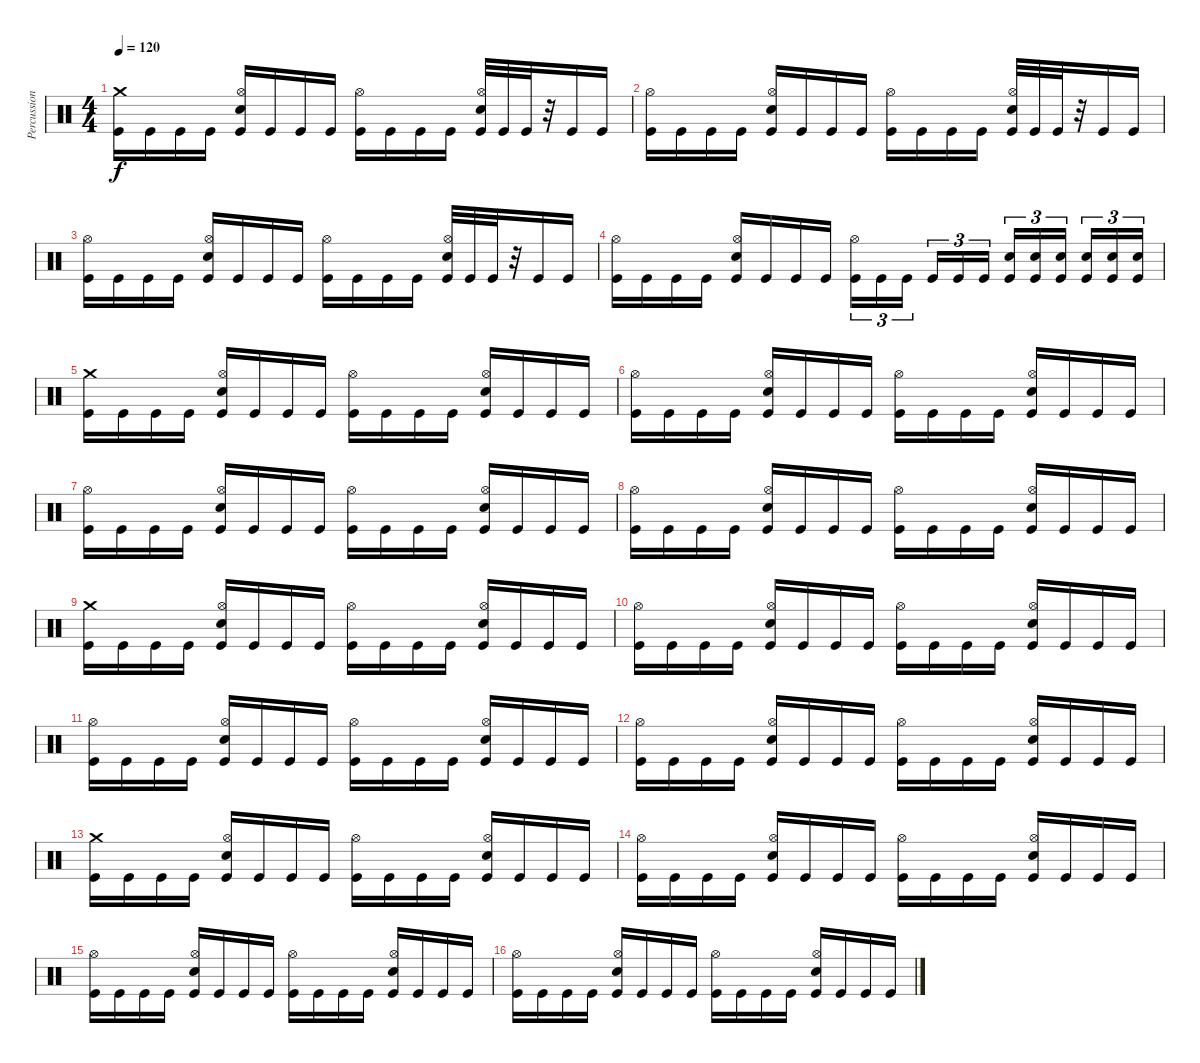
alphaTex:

\track ("Percussion" "Percussion") {instrument percussion}
\staff {score}
\articulation defaults
\ts (4 4)
\tempo 120
\clef neutral
\ks c
("Crash medium (hit)" "Kick (hit)").16{dy f} "Kick (hit)".16 "Kick (hit)".16 "Kick (hit)".16 ("Hi-Hat (open)" "Electric Snare (hit)" "Kick (hit)").16 "Kick (hit)".16 "Kick (hit)".16 "Kick (hit)".16 ("Hi-Hat (open)" "Kick (hit)").16 "Kick (hit)".16 "Kick (hit)".16 "Kick (hit)".16 ("Hi-Hat (open)" "Electric Snare (hit)" "Kick (hit)").32 "Kick (hit)".32 "Kick (hit)".32 r.32 "Kick (hit)".16 "Kick (hit)".16 |
("Hi-Hat (open)" "Kick (hit)").16 "Kick (hit)".16 "Kick (hit)".16 "Kick (hit)".16 ("Hi-Hat (open)" "Electric Snare (hit)" "Kick (hit)").16 "Kick (hit)".16 "Kick (hit)".16 "Kick (hit)".16 ("Hi-Hat (open)" "Kick (hit)").16 "Kick (hit)".16 "Kick (hit)".16 "Kick (hit)".16 ("Hi-Hat (open)" "Electric Snare (hit)" "Kick (hit)").32 "Kick (hit)".32 "Kick (hit)".32 r.32 "Kick (hit)".16 "Kick (hit)".16 |
("Hi-Hat (open)" "Kick (hit)").16 "Kick (hit)".16 "Kick (hit)".16 "Kick (hit)".16 ("Hi-Hat (open)" "Electric Snare (hit)" "Kick (hit)").16 "Kick (hit)".16 "Kick (hit)".16 "Kick (hit)".16 ("Hi-Hat (open)" "Kick (hit)").16 "Kick (hit)".16 "Kick (hit)".16 "Kick (hit)".16 ("Hi-Hat (open)" "Electric Snare (hit)" "Kick (hit)").32 "Kick (hit)".32 "Kick (hit)".32 r.32 "Kick (hit)".16 "Kick (hit)".16 |
("Hi-Hat (open)" "Kick (hit)").16 "Kick (hit)".16 "Kick (hit)".16 "Kick (hit)".16 ("Hi-Hat (open)" "Electric Snare (hit)" "Kick (hit)").16 "Kick (hit)".16 "Kick (hit)".16 "Kick (hit)".16 ("Hi-Hat (open)" "Kick (hit)").16{tu (3 2)} "Kick (hit)".16{tu (3 2)} "Kick (hit)".16{tu (3 2)} "Kick (hit)".16{tu (3 2)} "Kick (hit)".16{tu (3 2)} "Kick (hit)".16{tu (3 2)} ("Electric Snare (hit)" "Kick (hit)").16{tu (3 2)} ("Electric Snare (hit)" "Kick (hit)").16{tu (3 2)} ("Electric Snare (hit)" "Kick (hit)").16{tu (3 2)} ("Electric Snare (hit)" "Kick (hit)").16{tu (3 2)} ("Electric Snare (hit)" "Kick (hit)").16{tu (3 2)} ("Electric Snare (hit)" "Kick (hit)").16{tu (3 2)} |
("Crash medium (hit)" "Kick (hit)").16 "Kick (hit)".16 "Kick (hit)".16 "Kick (hit)".16 ("Hi-Hat (open)" "Electric Snare (hit)" "Kick (hit)").16 "Kick (hit)".16 "Kick (hit)".16 "Kick (hit)".16 ("Hi-Hat (open)" "Kick (hit)").16 "Kick (hit)".16 "Kick (hit)".16 "Kick (hit)".16 ("Hi-Hat (open)" "Electric Snare (hit)" "Kick (hit)").16 "Kick (hit)".16 "Kick (hit)".16 "Kick (hit)".16 |
("Hi-Hat (open)" "Kick (hit)").16 "Kick (hit)".16 "Kick (hit)".16 "Kick (hit)".16 ("Hi-Hat (open)" "Electric Snare (hit)" "Kick (hit)").16 "Kick (hit)".16 "Kick (hit)".16 "Kick (hit)".16 ("Hi-Hat (open)" "Kick (hit)").16 "Kick (hit)".16 "Kick (hit)".16 "Kick (hit)".16 ("Hi-Hat (open)" "Electric Snare (hit)" "Kick (hit)").16 "Kick (hit)".16 "Kick (hit)".16 "Kick (hit)".16 |
("Hi-Hat (open)" "Kick (hit)").16 "Kick (hit)".16 "Kick (hit)".16 "Kick (hit)".16 ("Hi-Hat (open)" "Electric Snare (hit)" "Kick (hit)").16 "Kick (hit)".16 "Kick (hit)".16 "Kick (hit)".16 ("Hi-Hat (open)" "Kick (hit)").16 "Kick (hit)".16 "Kick (hit)".16 "Kick (hit)".16 ("Hi-Hat (open)" "Electric Snare (hit)" "Kick (hit)").16 "Kick (hit)".16 "Kick (hit)".16 "Kick (hit)".16 |
("Hi-Hat (open)" "Kick (hit)").16 "Kick (hit)".16 "Kick (hit)".16 "Kick (hit)".16 ("Hi-Hat (open)" "Electric Snare (hit)" "Kick (hit)").16 "Kick (hit)".16 "Kick (hit)".16 "Kick (hit)".16 ("Hi-Hat (open)" "Kick (hit)").16 "Kick (hit)".16 "Kick (hit)".16 "Kick (hit)".16 ("Hi-Hat (open)" "Electric Snare (hit)" "Kick (hit)").16 "Kick (hit)".16 "Kick (hit)".16 "Kick (hit)".16 |
("Crash medium (hit)" "Kick (hit)").16 "Kick (hit)".16 "Kick (hit)".16 "Kick (hit)".16 ("Hi-Hat (open)" "Electric Snare (hit)" "Kick (hit)").16 "Kick (hit)".16 "Kick (hit)".16 "Kick (hit)".16 ("Hi-Hat (open)" "Kick (hit)").16 "Kick (hit)".16 "Kick (hit)".16 "Kick (hit)".16 ("Hi-Hat (open)" "Electric Snare (hit)" "Kick (hit)").16 "Kick (hit)".16 "Kick (hit)".16 "Kick (hit)".16 |
("Hi-Hat (open)" "Kick (hit)").16 "Kick (hit)".16 "Kick (hit)".16 "Kick (hit)".16 ("Hi-Hat (open)" "Electric Snare (hit)" "Kick (hit)").16 "Kick (hit)".16 "Kick (hit)".16 "Kick (hit)".16 ("Hi-Hat (open)" "Kick (hit)").16 "Kick (hit)".16 "Kick (hit)".16 "Kick (hit)".16 ("Hi-Hat (open)" "Electric Snare (hit)" "Kick (hit)").16 "Kick (hit)".16 "Kick (hit)".16 "Kick (hit)".16 |
("Hi-Hat (open)" "Kick (hit)").16 "Kick (hit)".16 "Kick (hit)".16 "Kick (hit)".16 ("Hi-Hat (open)" "Electric Snare (hit)" "Kick (hit)").16 "Kick (hit)".16 "Kick (hit)".16 "Kick (hit)".16 ("Hi-Hat (open)" "Kick (hit)").16 "Kick (hit)".16 "Kick (hit)".16 "Kick (hit)".16 ("Hi-Hat (open)" "Electric Snare (hit)" "Kick (hit)").16 "Kick (hit)".16 "Kick (hit)".16 "Kick (hit)".16 |
("Hi-Hat (open)" "Kick (hit)").16 "Kick (hit)".16 "Kick (hit)".16 "Kick (hit)".16 ("Hi-Hat (open)" "Electric Snare (hit)" "Kick (hit)").16 "Kick (hit)".16 "Kick (hit)".16 "Kick (hit)".16 ("Hi-Hat (open)" "Kick (hit)").16 "Kick (hit)".16 "Kick (hit)".16 "Kick (hit)".16 ("Hi-Hat (open)" "Electric Snare (hit)" "Kick (hit)").16 "Kick (hit)".16 "Kick (hit)".16 "Kick (hit)".16 |
("Crash medium (hit)" "Kick (hit)").16 "Kick (hit)".16 "Kick (hit)".16 "Kick (hit)".16 ("Hi-Hat (open)" "Electric Snare (hit)" "Kick (hit)").16 "Kick (hit)".16 "Kick (hit)".16 "Kick (hit)".16 ("Hi-Hat (open)" "Kick (hit)").16 "Kick (hit)".16 "Kick (hit)".16 "Kick (hit)".16 ("Hi-Hat (open)" "Electric Snare (hit)" "Kick (hit)").16 "Kick (hit)".16 "Kick (hit)".16 "Kick (hit)".16 |
("Hi-Hat (open)" "Kick (hit)").16 "Kick (hit)".16 "Kick (hit)".16 "Kick (hit)".16 ("Hi-Hat (open)" "Electric Snare (hit)" "Kick (hit)").16 "Kick (hit)".16 "Kick (hit)".16 "Kick (hit)".16 ("Hi-Hat (open)" "Kick (hit)").16 "Kick (hit)".16 "Kick (hit)".16 "Kick (hit)".16 ("Hi-Hat (open)" "Electric Snare (hit)" "Kick (hit)").16 "Kick (hit)".16 "Kick (hit)".16 "Kick (hit)".16 |
("Hi-Hat (open)" "Kick (hit)").16 "Kick (hit)".16 "Kick (hit)".16 "Kick (hit)".16 ("Hi-Hat (open)" "Electric Snare (hit)" "Kick (hit)").16 "Kick (hit)".16 "Kick (hit)".16 "Kick (hit)".16 ("Hi-Hat (open)" "Kick (hit)").16 "Kick (hit)".16 "Kick (hit)".16 "Kick (hit)".16 ("Hi-Hat (open)" "Electric Snare (hit)" "Kick (hit)").16 "Kick (hit)".16 "Kick (hit)".16 "Kick (hit)".16 |
("Hi-Hat (open)" "Kick (hit)").16 "Kick (hit)".16 "Kick (hit)".16 "Kick (hit)".16 ("Hi-Hat (open)" "Electric Snare (hit)" "Kick (hit)").16 "Kick (hit)".16 "Kick (hit)".16 "Kick (hit)".16 ("Hi-Hat (open)" "Kick (hit)").16 "Kick (hit)".16 "Kick (hit)".16 "Kick (hit)".16 ("Hi-Hat (open)" "Electric Snare (hit)" "Kick (hit)").16 "Kick (hit)".16 "Kick (hit)".16 "Kick (hit)".16
